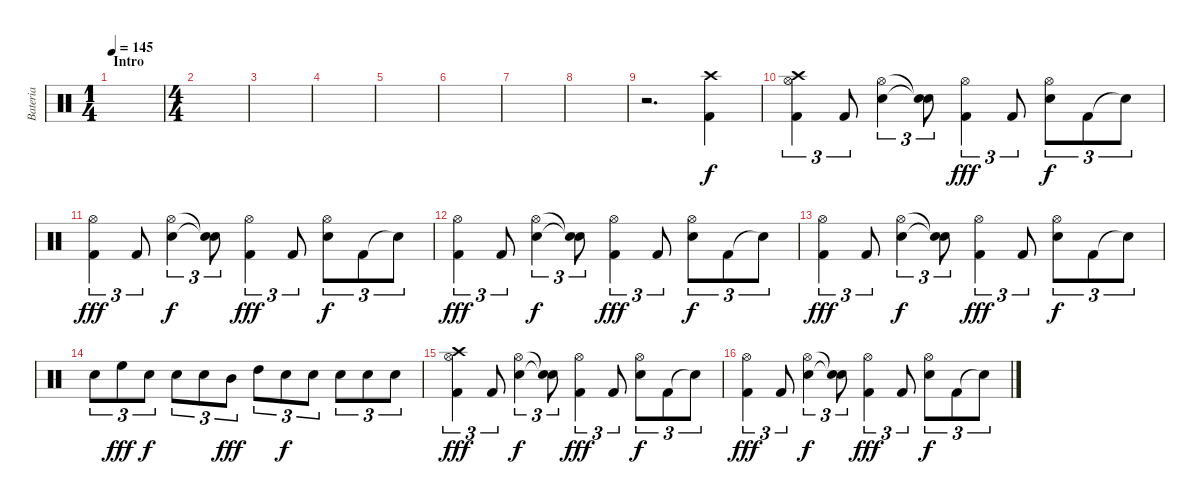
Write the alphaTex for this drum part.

\track ("Bateria" "Bateria") {instrument percussion}
\staff {score}
\articulation defaults
\ts (1 4)
\section ("" "Intro")
\tempo 145
\clef neutral
\ks c
|
\ts (4 4)
|
|
|
|
|
|
|
r.2{d} ("Kick (hit) 2" "Crash high (hit)").4 |
("Hi-Hat (open)" "Kick (hit) 2" "Crash high (hit)").4{tu (3 2)} "Kick (hit) 2".8{tu (3 2)} ("Hi-Hat (open)" "Snare (hit) 2").4{tu (3 2) dy f} ("Snare (hit)"{t} "Snare (hit)"{t}).8{tu (3 2)} ("Hi-Hat (open)" "Kick (hit) 2").4{tu (3 2) dy fff} "Kick (hit) 2".8{tu (3 2)} ("Hi-Hat (open)" "Snare (hit) 2").8{tu (3 2) dy f} "Kick (hit) 2".8{tu (3 2)} "Snare (hit)"{t}.8{tu (3 2)} |
("Hi-Hat (open)" "Kick (hit) 2").4{tu (3 2) dy fff} "Kick (hit) 2".8{tu (3 2)} ("Hi-Hat (open)" "Snare (hit) 2").4{tu (3 2) dy f} ("Snare (hit)"{t} "Snare (hit)"{t}).8{tu (3 2)} ("Hi-Hat (open)" "Kick (hit) 2").4{tu (3 2) dy fff} "Kick (hit) 2".8{tu (3 2)} ("Hi-Hat (open)" "Snare (hit) 2").8{tu (3 2) dy f} "Kick (hit) 2".8{tu (3 2)} "Snare (hit)"{t}.8{tu (3 2)} |
("Hi-Hat (open)" "Kick (hit) 2").4{tu (3 2) dy fff} "Kick (hit) 2".8{tu (3 2)} ("Hi-Hat (open)" "Snare (hit) 2").4{tu (3 2) dy f} ("Snare (hit)"{t} "Snare (hit)"{t}).8{tu (3 2)} ("Hi-Hat (open)" "Kick (hit) 2").4{tu (3 2) dy fff} "Kick (hit) 2".8{tu (3 2)} ("Hi-Hat (open)" "Snare (hit) 2").8{tu (3 2) dy f} "Kick (hit) 2".8{tu (3 2)} "Snare (hit)"{t}.8{tu (3 2)} |
("Hi-Hat (open)" "Kick (hit) 2").4{tu (3 2) dy fff} "Kick (hit) 2".8{tu (3 2)} ("Hi-Hat (open)" "Snare (hit) 2").4{tu (3 2) dy f} ("Snare (hit)"{t} "Snare (hit)"{t}).8{tu (3 2)} ("Hi-Hat (open)" "Kick (hit) 2").4{tu (3 2) dy fff} "Kick (hit) 2".8{tu (3 2)} ("Hi-Hat (open)" "Snare (hit) 2").8{tu (3 2) dy f} "Kick (hit) 2".8{tu (3 2)} "Snare (hit)"{t}.8{tu (3 2)} |
"Snare (hit) 2".8{tu (3 2)} "High Floor Tom (hit)".8{tu (3 2) dy fff} "Snare (hit) 2".8{tu (3 2) dy f} "Snare (hit) 2".8{tu (3 2)} "Snare (hit) 2".8{tu (3 2)} "Mid Tom (hit)".8{tu (3 2) dy fff} "High Tom (hit)".8{tu (3 2)} "Snare (hit) 2".8{tu (3 2) dy f} "Snare (hit) 2".8{tu (3 2)} "Snare (hit) 2".8{tu (3 2)} "Snare (hit) 2".8{tu (3 2)} "Snare (hit) 2".8{tu (3 2)} |
("Hi-Hat (open)" "Kick (hit) 2" "Crash high (hit)").4{tu (3 2) dy fff} "Kick (hit) 2".8{tu (3 2)} ("Hi-Hat (open)" "Snare (hit) 2").4{tu (3 2) dy f} ("Snare (hit)"{t} "Snare (hit)"{t}).8{tu (3 2)} ("Hi-Hat (open)" "Kick (hit) 2").4{tu (3 2) dy fff} "Kick (hit) 2".8{tu (3 2)} ("Hi-Hat (open)" "Snare (hit) 2").8{tu (3 2) dy f} "Kick (hit) 2".8{tu (3 2)} "Snare (hit)"{t}.8{tu (3 2)} |
("Hi-Hat (open)" "Kick (hit) 2").4{tu (3 2) dy fff} "Kick (hit) 2".8{tu (3 2)} ("Hi-Hat (open)" "Snare (hit) 2").4{tu (3 2) dy f} ("Snare (hit)"{t} "Snare (hit)"{t}).8{tu (3 2)} ("Hi-Hat (open)" "Kick (hit) 2").4{tu (3 2) dy fff} "Kick (hit) 2".8{tu (3 2)} ("Hi-Hat (open)" "Snare (hit) 2").8{tu (3 2) dy f} "Kick (hit) 2".8{tu (3 2)} "Snare (hit)"{t}.8{tu (3 2)}
